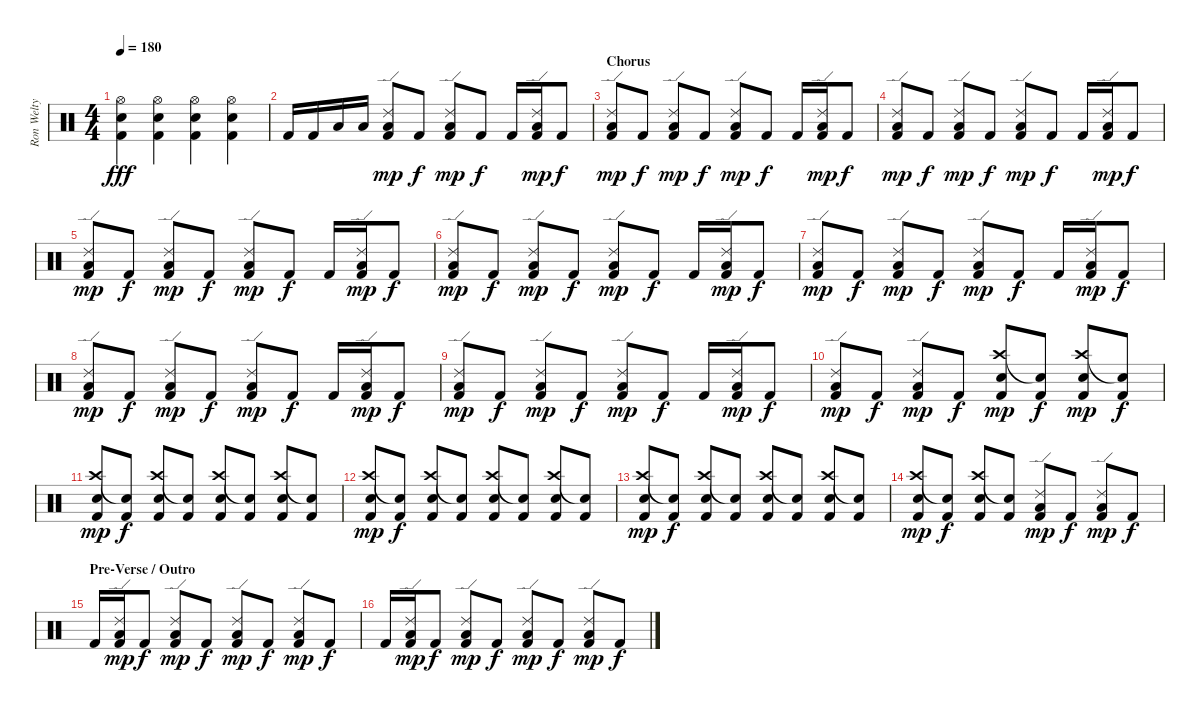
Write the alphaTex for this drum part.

\track ("Ron Welty" "Ron Welty") {instrument percussion}
\staff {score}
\articulation defaults
\ts (4 4)
\tempo 180
\clef neutral
\ks c
("Hi-Hat (open)" "Electric Snare (hit)" "Kick (hit) 2").4{dy fff} ("Hi-Hat (open)" "Electric Snare (hit)" "Kick (hit) 2").4 ("Hi-Hat (open)" "Electric Snare (hit)" "Kick (hit) 2").4 ("Hi-Hat (open)" "Electric Snare (hit)" "Kick (hit) 2").4 |
"Kick (hit) 2".16 "Kick (hit) 2".16 "Low Floor Tom (hit)".16 "Low Tom (hit)".16 ("Ride (edge) 2" "Low Tom (hit)" "Kick (hit) 2").8{dy mp} "Kick (hit) 2".8{dy f} ("Ride (edge) 2" "Low Tom (hit)" "Kick (hit) 2").8{dy mp} "Kick (hit) 2".8{dy f} "Kick (hit) 2".16 ("Ride (edge) 2" "Low Tom (hit)" "Kick (hit) 2").16{dy mp} "Kick (hit) 2".8{dy f} |
\section ("" "Chorus")
("Ride (edge) 2" "Low Tom (hit)" "Kick (hit) 2").8{dy mp} "Kick (hit) 2".8{dy f} ("Ride (edge) 2" "Low Tom (hit)" "Kick (hit) 2").8{dy mp} "Kick (hit) 2".8{dy f} ("Ride (edge) 2" "Low Tom (hit)" "Kick (hit) 2").8{dy mp} "Kick (hit) 2".8{dy f} "Kick (hit) 2".16 ("Ride (edge) 2" "Low Tom (hit)" "Kick (hit) 2").16{dy mp} "Kick (hit) 2".8{dy f} |
("Ride (edge) 2" "Low Tom (hit)" "Kick (hit) 2").8{dy mp} "Kick (hit) 2".8{dy f} ("Ride (edge) 2" "Low Tom (hit)" "Kick (hit) 2").8{dy mp} "Kick (hit) 2".8{dy f} ("Ride (edge) 2" "Low Tom (hit)" "Kick (hit) 2").8{dy mp} "Kick (hit) 2".8{dy f} "Kick (hit) 2".16 ("Ride (edge) 2" "Low Tom (hit)" "Kick (hit) 2").16{dy mp} "Kick (hit) 2".8{dy f} |
("Ride (edge) 2" "Low Tom (hit)" "Kick (hit) 2").8{dy mp} "Kick (hit) 2".8{dy f} ("Ride (edge) 2" "Low Tom (hit)" "Kick (hit) 2").8{dy mp} "Kick (hit) 2".8{dy f} ("Ride (edge) 2" "Low Tom (hit)" "Kick (hit) 2").8{dy mp} "Kick (hit) 2".8{dy f} "Kick (hit) 2".16 ("Ride (edge) 2" "Low Tom (hit)" "Kick (hit) 2").16{dy mp} "Kick (hit) 2".8{dy f} |
("Ride (edge) 2" "Low Tom (hit)" "Kick (hit) 2").8{dy mp} "Kick (hit) 2".8{dy f} ("Ride (edge) 2" "Low Tom (hit)" "Kick (hit) 2").8{dy mp} "Kick (hit) 2".8{dy f} ("Ride (edge) 2" "Low Tom (hit)" "Kick (hit) 2").8{dy mp} "Kick (hit) 2".8{dy f} "Kick (hit) 2".16 ("Ride (edge) 2" "Low Tom (hit)" "Kick (hit) 2").16{dy mp} "Kick (hit) 2".8{dy f} |
("Ride (edge) 2" "Low Tom (hit)" "Kick (hit) 2").8{dy mp} "Kick (hit) 2".8{dy f} ("Ride (edge) 2" "Low Tom (hit)" "Kick (hit) 2").8{dy mp} "Kick (hit) 2".8{dy f} ("Ride (edge) 2" "Low Tom (hit)" "Kick (hit) 2").8{dy mp} "Kick (hit) 2".8{dy f} "Kick (hit) 2".16 ("Ride (edge) 2" "Low Tom (hit)" "Kick (hit) 2").16{dy mp} "Kick (hit) 2".8{dy f} |
("Ride (edge) 2" "Low Tom (hit)" "Kick (hit) 2").8{dy mp} "Kick (hit) 2".8{dy f} ("Ride (edge) 2" "Low Tom (hit)" "Kick (hit) 2").8{dy mp} "Kick (hit) 2".8{dy f} ("Ride (edge) 2" "Low Tom (hit)" "Kick (hit) 2").8{dy mp} "Kick (hit) 2".8{dy f} "Kick (hit) 2".16 ("Ride (edge) 2" "Low Tom (hit)" "Kick (hit) 2").16{dy mp} "Kick (hit) 2".8{dy f} |
("Ride (edge) 2" "Low Tom (hit)" "Kick (hit) 2").8{dy mp} "Kick (hit) 2".8{dy f} ("Ride (edge) 2" "Low Tom (hit)" "Kick (hit) 2").8{dy mp} "Kick (hit) 2".8{dy f} ("Ride (edge) 2" "Low Tom (hit)" "Kick (hit) 2").8{dy mp} "Kick (hit) 2".8{dy f} "Kick (hit) 2".16 ("Ride (edge) 2" "Low Tom (hit)" "Kick (hit) 2").16{dy mp} "Kick (hit) 2".8{dy f} |
("Ride (edge) 2" "Low Tom (hit)" "Kick (hit) 2").8{dy mp} "Kick (hit) 2".8{dy f} ("Ride (edge) 2" "Low Tom (hit)" "Kick (hit) 2").8{dy mp} "Kick (hit) 2".8{dy f} ("Crash high (hit)" "Snare (hit) 2" "Kick (hit) 2").8{dy mp} ("Snare (hit)"{t} "Kick (hit) 2").8{dy f} ("Crash high (hit)" "Snare (hit) 2" "Kick (hit) 2").8{dy mp} ("Snare (hit)"{t} "Kick (hit) 2").8{dy f} |
("Crash high (hit)" "Snare (hit) 2" "Kick (hit) 2").8{dy mp} ("Snare (hit)"{t} "Kick (hit) 2").8{dy f} ("Crash high (hit)" "Snare (hit) 2" "Kick (hit) 2").8 ("Snare (hit)"{t} "Kick (hit) 2").8 ("Crash high (hit)" "Snare (hit) 2" "Kick (hit) 2").8 ("Snare (hit)"{t} "Kick (hit) 2").8 ("Crash high (hit)" "Snare (hit) 2" "Kick (hit) 2").8 ("Snare (hit)"{t} "Kick (hit) 2").8 |
("Crash high (hit)" "Snare (hit) 2" "Kick (hit) 2").8{dy mp} ("Snare (hit)"{t} "Kick (hit) 2").8{dy f} ("Crash high (hit)" "Snare (hit) 2" "Kick (hit) 2").8 ("Snare (hit)"{t} "Kick (hit) 2").8 ("Crash high (hit)" "Snare (hit) 2" "Kick (hit) 2").8 ("Snare (hit)"{t} "Kick (hit) 2").8 ("Crash high (hit)" "Snare (hit) 2" "Kick (hit) 2").8 ("Snare (hit)"{t} "Kick (hit) 2").8 |
("Crash high (hit)" "Snare (hit) 2" "Kick (hit) 2").8{dy mp} ("Snare (hit)"{t} "Kick (hit) 2").8{dy f} ("Crash high (hit)" "Snare (hit) 2" "Kick (hit) 2").8 ("Snare (hit)"{t} "Kick (hit) 2").8 ("Crash high (hit)" "Snare (hit) 2" "Kick (hit) 2").8 ("Snare (hit)"{t} "Kick (hit) 2").8 ("Crash high (hit)" "Snare (hit) 2" "Kick (hit) 2").8 ("Snare (hit)"{t} "Kick (hit) 2").8 |
("Crash high (hit)" "Snare (hit) 2" "Kick (hit) 2").8{dy mp} ("Snare (hit)"{t} "Kick (hit) 2").8{dy f} ("Crash high (hit)" "Snare (hit) 2" "Kick (hit) 2").8 ("Snare (hit)"{t} "Kick (hit) 2").8 ("Ride (edge) 2" "Low Tom (hit)" "Kick (hit) 2").8{dy mp} "Kick (hit) 2".8{dy f} ("Ride (edge) 2" "Low Tom (hit)" "Kick (hit) 2").8{dy mp} "Kick (hit) 2".8{dy f} |
\section ("" "Pre-Verse / Outro")
"Kick (hit) 2".16 ("Ride (edge) 2" "Low Tom (hit)" "Kick (hit) 2").16{dy mp} "Kick (hit) 2".8{dy f} ("Ride (edge) 2" "Low Tom (hit)" "Kick (hit) 2").8{dy mp} "Kick (hit) 2".8{dy f} ("Ride (edge) 2" "Low Tom (hit)" "Kick (hit) 2").8{dy mp} "Kick (hit) 2".8{dy f} ("Ride (edge) 2" "Low Tom (hit)" "Kick (hit) 2").8{dy mp} "Kick (hit) 2".8{dy f} |
"Kick (hit) 2".16 ("Ride (edge) 2" "Low Tom (hit)" "Kick (hit) 2").16{dy mp} "Kick (hit) 2".8{dy f} ("Ride (edge) 2" "Low Tom (hit)" "Kick (hit) 2").8{dy mp} "Kick (hit) 2".8{dy f} ("Ride (edge) 2" "Low Tom (hit)" "Kick (hit) 2").8{dy mp} "Kick (hit) 2".8{dy f} ("Ride (edge) 2" "Low Tom (hit)" "Kick (hit) 2").8{dy mp} "Kick (hit) 2".8{dy f}
